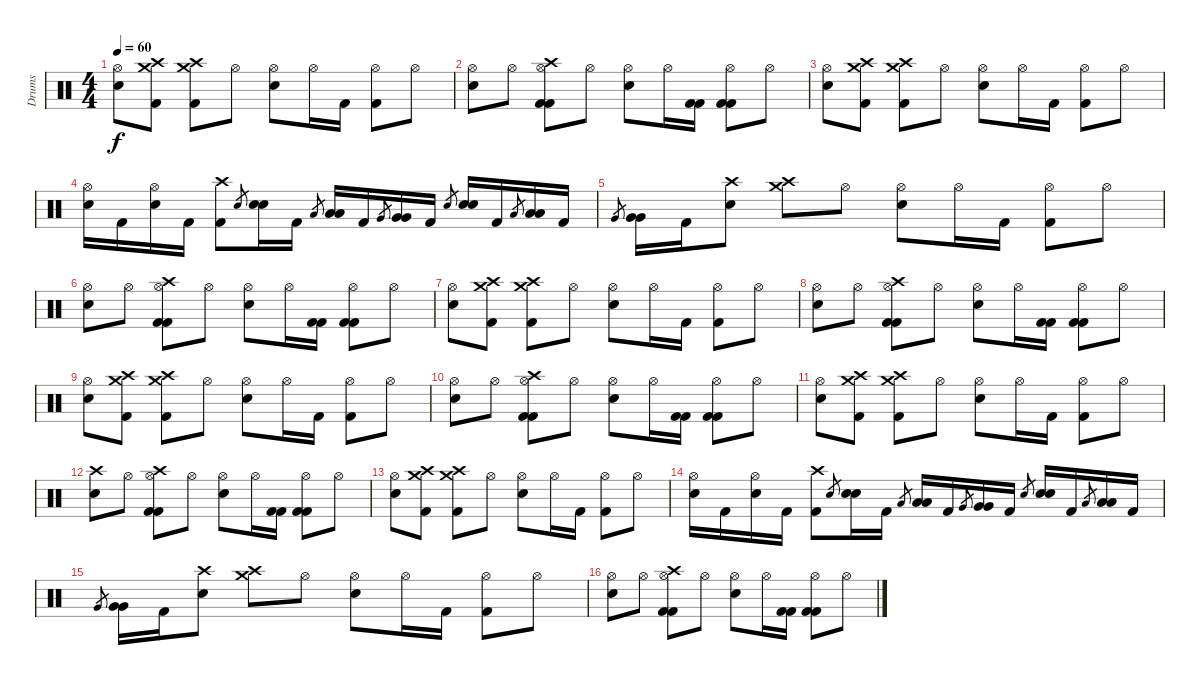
\track ("Drums" "Drums") {instrument percussion}
\staff {score}
\articulation defaults
\ts (4 4)
\tempo 60
\clef neutral
\ks c
("Hi-Hat (open)" "Snare (hit) 2").8{dy f} ("Crash high (hit)" "Crash medium (hit)" "Kick (hit) 2").8 ("Crash high (hit)" "Crash medium (hit)" "Kick (hit) 2").8 "Hi-Hat (open)".8 ("Hi-Hat (open)" "Snare (hit) 2").8 "Hi-Hat (open)".16 "Kick (hit) 2".16 ("Hi-Hat (open)" "Kick (hit) 2").8 "Hi-Hat (open)".8 |
("Hi-Hat (open)" "Snare (hit) 2").8 "Hi-Hat (open)".8 ("Hi-Hat (open)" "Crash high (hit)" "Kick (hit) 2" "Kick (hit) 2").8 "Hi-Hat (open)".8 ("Hi-Hat (open)" "Snare (hit) 2").8 "Hi-Hat (open)".16 ("Kick (hit) 2" "Kick (hit) 2").16 ("Hi-Hat (open)" "Kick (hit) 2" "Kick (hit) 2").8 "Hi-Hat (open)".8 |
("Hi-Hat (open)" "Snare (hit) 2").8 ("Crash high (hit)" "Crash medium (hit)" "Kick (hit) 2").8 ("Crash high (hit)" "Crash medium (hit)" "Kick (hit) 2").8 "Hi-Hat (open)".8 ("Hi-Hat (open)" "Snare (hit) 2").8 "Hi-Hat (open)".16 "Kick (hit) 2".16 ("Hi-Hat (open)" "Kick (hit) 2").8 "Hi-Hat (open)".8 |
("Hi-Hat (open)" "Snare (hit) 2").16 "Kick (hit) 2".16 ("Hi-Hat (open)" "Snare (hit) 2").16 "Kick (hit) 2".16 ("Crash high (hit)" "Kick (hit) 2").8 "Snare (hit) 2".8{gr} ("Snare (hit) 2" "Snare (hit) 2").16 "Kick (hit) 2".16 "Low Tom (hit)".8{gr} ("Low Tom (hit)" "Low Tom (hit)").16 "Kick (hit) 2".16 "Very Low Tom (hit)".8{gr} ("Very Low Tom (hit)" "Very Low Tom (hit)").16 "Kick (hit) 2".16 "Snare (hit) 2".8{gr} ("Snare (hit) 2" "Snare (hit) 2").16 "Kick (hit) 2".16 "Low Tom (hit)".8{gr} ("Low Tom (hit)" "Low Tom (hit)").16 "Kick (hit) 2".16 |
"Very Low Tom (hit)".8{gr} ("Very Low Tom (hit)" "Very Low Tom (hit)").16 "Kick (hit) 2".16 ("Crash high (hit)" "Snare (hit) 2").8 ("Crash high (hit)" "Crash medium (hit)").8 "Hi-Hat (open)".8 ("Hi-Hat (open)" "Snare (hit) 2").8 "Hi-Hat (open)".16 "Kick (hit) 2".16 ("Hi-Hat (open)" "Kick (hit) 2").8 "Hi-Hat (open)".8 |
("Hi-Hat (open)" "Snare (hit) 2").8 "Hi-Hat (open)".8 ("Hi-Hat (open)" "Crash high (hit)" "Kick (hit) 2" "Kick (hit) 2").8 "Hi-Hat (open)".8 ("Hi-Hat (open)" "Snare (hit) 2").8 "Hi-Hat (open)".16 ("Kick (hit) 2" "Kick (hit) 2").16 ("Hi-Hat (open)" "Kick (hit) 2" "Kick (hit) 2").8 "Hi-Hat (open)".8 |
("Hi-Hat (open)" "Snare (hit) 2").8 ("Crash high (hit)" "Crash medium (hit)" "Kick (hit) 2").8 ("Crash high (hit)" "Crash medium (hit)" "Kick (hit) 2").8 "Hi-Hat (open)".8 ("Hi-Hat (open)" "Snare (hit) 2").8 "Hi-Hat (open)".16 "Kick (hit) 2".16 ("Hi-Hat (open)" "Kick (hit) 2").8 "Hi-Hat (open)".8 |
("Hi-Hat (open)" "Snare (hit) 2").8 "Hi-Hat (open)".8 ("Hi-Hat (open)" "Crash high (hit)" "Kick (hit) 2" "Kick (hit) 2").8 "Hi-Hat (open)".8 ("Hi-Hat (open)" "Snare (hit) 2").8 "Hi-Hat (open)".16 ("Kick (hit) 2" "Kick (hit) 2").16 ("Hi-Hat (open)" "Kick (hit) 2" "Kick (hit) 2").8 "Hi-Hat (open)".8 |
("Hi-Hat (open)" "Snare (hit) 2").8 ("Crash high (hit)" "Crash medium (hit)" "Kick (hit) 2").8 ("Crash high (hit)" "Crash medium (hit)" "Kick (hit) 2").8 "Hi-Hat (open)".8 ("Hi-Hat (open)" "Snare (hit) 2").8 "Hi-Hat (open)".16 "Kick (hit) 2".16 ("Hi-Hat (open)" "Kick (hit) 2").8 "Hi-Hat (open)".8 |
("Hi-Hat (open)" "Snare (hit) 2").8 "Hi-Hat (open)".8 ("Hi-Hat (open)" "Crash high (hit)" "Kick (hit) 2" "Kick (hit) 2").8 "Hi-Hat (open)".8 ("Hi-Hat (open)" "Snare (hit) 2").8 "Hi-Hat (open)".16 ("Kick (hit) 2" "Kick (hit) 2").16 ("Hi-Hat (open)" "Kick (hit) 2" "Kick (hit) 2").8 "Hi-Hat (open)".8 |
("Hi-Hat (open)" "Snare (hit) 2").8 ("Crash high (hit)" "Crash medium (hit)" "Kick (hit) 2").8 ("Crash high (hit)" "Crash medium (hit)" "Kick (hit) 2").8 "Hi-Hat (open)".8 ("Hi-Hat (open)" "Snare (hit) 2").8 "Hi-Hat (open)".16 "Kick (hit) 2".16 ("Hi-Hat (open)" "Kick (hit) 2").8 "Hi-Hat (open)".8 |
("Crash high (hit)" "Snare (hit) 2").8 "Hi-Hat (open)".8 ("Hi-Hat (open)" "Crash high (hit)" "Kick (hit) 2" "Kick (hit) 2").8 "Hi-Hat (open)".8 ("Hi-Hat (open)" "Snare (hit) 2").8 "Hi-Hat (open)".16 ("Kick (hit) 2" "Kick (hit) 2").16 ("Hi-Hat (open)" "Kick (hit) 2" "Kick (hit) 2").8 "Hi-Hat (open)".8 |
("Hi-Hat (open)" "Snare (hit) 2").8 ("Crash high (hit)" "Crash medium (hit)" "Kick (hit) 2").8 ("Crash high (hit)" "Crash medium (hit)" "Kick (hit) 2").8 "Hi-Hat (open)".8 ("Hi-Hat (open)" "Snare (hit) 2").8 "Hi-Hat (open)".16 "Kick (hit) 2".16 ("Hi-Hat (open)" "Kick (hit) 2").8 "Hi-Hat (open)".8 |
("Hi-Hat (open)" "Snare (hit) 2").16 "Kick (hit) 2".16 ("Hi-Hat (open)" "Snare (hit) 2").16 "Kick (hit) 2".16 ("Crash high (hit)" "Kick (hit) 2").8 "Snare (hit) 2".8{gr} ("Snare (hit) 2" "Snare (hit) 2").16 "Kick (hit) 2".16 "Low Tom (hit)".8{gr} ("Low Tom (hit)" "Low Tom (hit)").16 "Kick (hit) 2".16 "Very Low Tom (hit)".8{gr} ("Very Low Tom (hit)" "Very Low Tom (hit)").16 "Kick (hit) 2".16 "Snare (hit) 2".8{gr} ("Snare (hit) 2" "Snare (hit) 2").16 "Kick (hit) 2".16 "Low Tom (hit)".8{gr} ("Low Tom (hit)" "Low Tom (hit)").16 "Kick (hit) 2".16 |
"Very Low Tom (hit)".8{gr} ("Very Low Tom (hit)" "Very Low Tom (hit)").16 "Kick (hit) 2".16 ("Crash high (hit)" "Snare (hit) 2").8 ("Crash high (hit)" "Crash medium (hit)").8 "Hi-Hat (open)".8 ("Hi-Hat (open)" "Snare (hit) 2").8 "Hi-Hat (open)".16 "Kick (hit) 2".16 ("Hi-Hat (open)" "Kick (hit) 2").8 "Hi-Hat (open)".8 |
("Hi-Hat (open)" "Snare (hit) 2").8 "Hi-Hat (open)".8 ("Hi-Hat (open)" "Crash high (hit)" "Kick (hit) 2" "Kick (hit) 2").8 "Hi-Hat (open)".8 ("Hi-Hat (open)" "Snare (hit) 2").8 "Hi-Hat (open)".16 ("Kick (hit) 2" "Kick (hit) 2").16 ("Hi-Hat (open)" "Kick (hit) 2" "Kick (hit) 2").8 "Hi-Hat (open)".8
